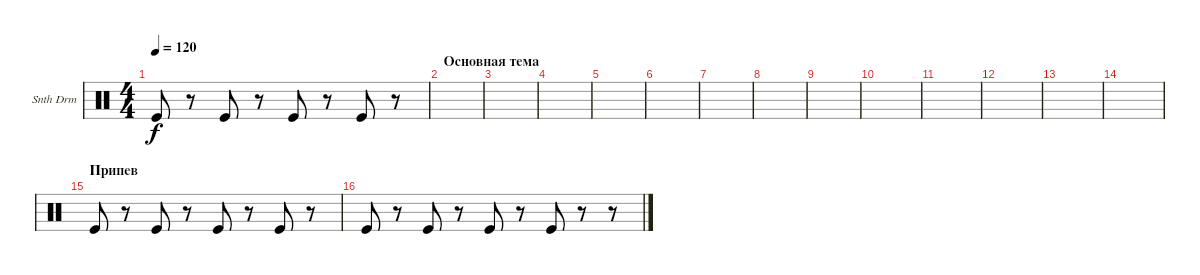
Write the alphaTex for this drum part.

\defaultSystemsLayout 4
\bracketExtendMode groupsimilarinstruments
\firstSystemTrackNameOrientation horizontal
\otherSystemsTrackNameOrientation horizontal
\track ("Synth Drum" "Snth Drm") {instrument percussion}
\staff {score}
\articulation defaults
\ts (4 4)
\tempo 120
\clef neutral
\ks c "Kick (hit)".8{dy f}
r.8 "Kick (hit)".8 r.8 "Kick (hit)".8 r.8 "Kick (hit)".8 r.8 |
\section ("" "Основная тема")
|
|
|
|
|
|
|
|
|
|
|
|
|
\section ("" "Припев")
"Kick (hit)".8 r.8 "Kick (hit)".8 r.8 "Kick (hit)".8 r.8 "Kick (hit)".8 r.8 |
"Kick (hit)".8 r.8 "Kick (hit)".8 r.8 "Kick (hit)".8 r.8 "Kick (hit)".8 r.8 r.8
